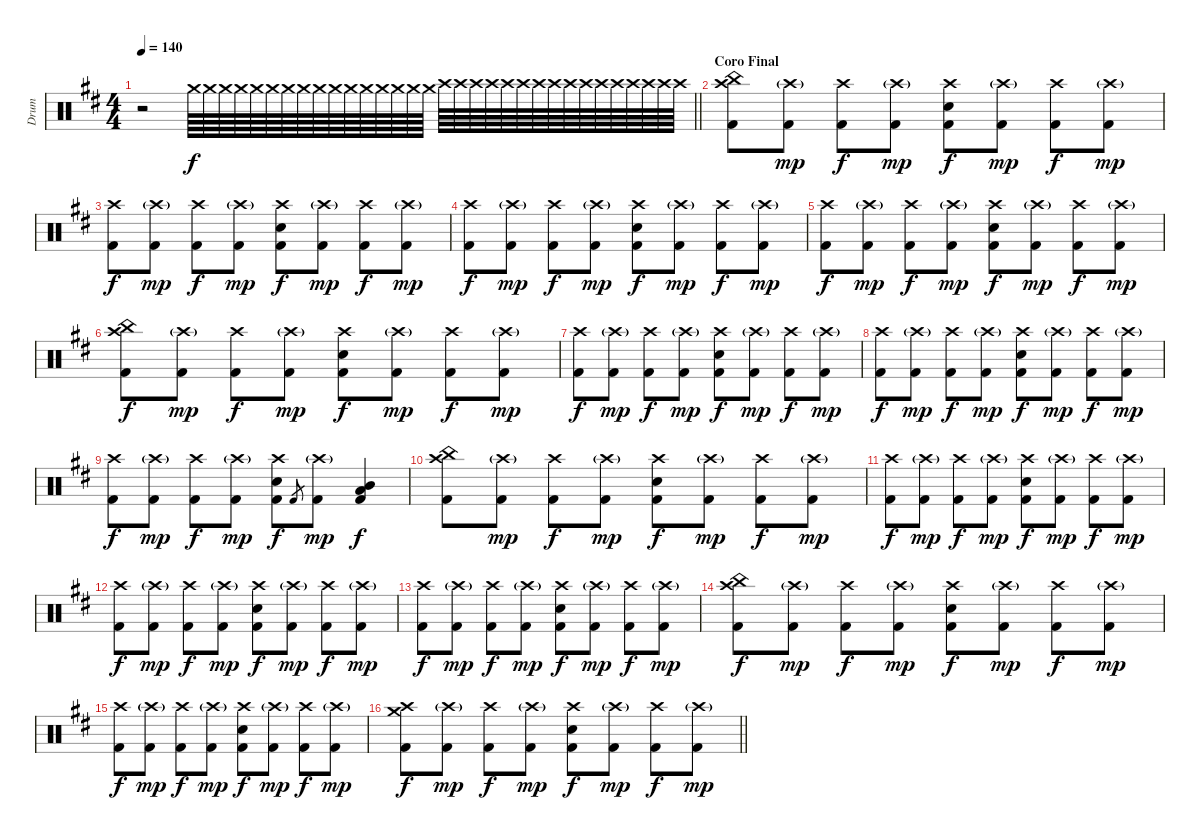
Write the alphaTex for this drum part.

\track ("Drum" "Drum") {instrument percussion}
\staff {score}
\articulation defaults
\ts (4 4)
\tempo 140
\clef neutral
\barLineRight lightlight
\ks bminor
r.2{dy f} "Crash medium (hit)".64 "Crash medium (hit)".64 "Crash medium (hit)".64 "Crash medium (hit)".64 "Crash medium (hit)".64 "Crash medium (hit)".64 "Crash medium (hit)".64 "Crash medium (hit)".64 "Crash medium (hit)".64 "Crash medium (hit)".64 "Crash medium (hit)".64 "Crash medium (hit)".64 "Crash medium (hit)".64 "Crash medium (hit)".64 "Crash medium (hit)".64 "Crash medium (hit)".64 "Crash high (hit)".64 "Crash high (hit)".64 "Crash high (hit)".64 "Crash high (hit)".64 "Crash high (hit)".64 "Crash high (hit)".64 "Crash high (hit)".64 "Crash high (hit)".64 "Crash high (hit)".64 "Crash high (hit)".64 "Crash high (hit)".64 "Crash high (hit)".64 "Crash high (hit)".64 "Crash high (hit)".64 "Crash high (hit)".64 "Crash high (hit)".64 |
\section ("" "Coro Final")
("Crash high (hit)" "China (hit)" "Kick (hit) 2").8 ("Crash high (hit)"{g} "Kick (hit) 2").8{dy mp} ("Crash high (hit)" "Kick (hit) 2").8{dy f} ("Crash high (hit)"{g} "Kick (hit) 2").8{dy mp} ("Crash high (hit)" "Snare (hit) 2" "Kick (hit) 2").8{dy f} ("Crash high (hit)"{g} "Kick (hit) 2").8{dy mp} ("Crash high (hit)" "Kick (hit) 2").8{dy f} ("Crash high (hit)"{g} "Kick (hit) 2").8{dy mp} |
("Crash high (hit)" "Kick (hit) 2").8{dy f} ("Crash high (hit)"{g} "Kick (hit) 2").8{dy mp} ("Crash high (hit)" "Kick (hit) 2").8{dy f} ("Crash high (hit)"{g} "Kick (hit) 2").8{dy mp} ("Crash high (hit)" "Snare (hit) 2" "Kick (hit) 2").8{dy f} ("Crash high (hit)"{g} "Kick (hit) 2").8{dy mp} ("Crash high (hit)" "Kick (hit) 2").8{dy f} ("Crash high (hit)"{g} "Kick (hit) 2").8{dy mp} |
("Crash high (hit)" "Kick (hit) 2").8{dy f} ("Crash high (hit)"{g} "Kick (hit) 2").8{dy mp} ("Crash high (hit)" "Kick (hit) 2").8{dy f} ("Crash high (hit)"{g} "Kick (hit) 2").8{dy mp} ("Crash high (hit)" "Snare (hit) 2" "Kick (hit) 2").8{dy f} ("Crash high (hit)"{g} "Kick (hit) 2").8{dy mp} ("Crash high (hit)" "Kick (hit) 2").8{dy f} ("Crash high (hit)"{g} "Kick (hit) 2").8{dy mp} |
("Crash high (hit)" "Kick (hit) 2").8{dy f} ("Crash high (hit)"{g} "Kick (hit) 2").8{dy mp} ("Crash high (hit)" "Kick (hit) 2").8{dy f} ("Crash high (hit)"{g} "Kick (hit) 2").8{dy mp} ("Crash high (hit)" "Snare (hit) 2" "Kick (hit) 2").8{dy f} ("Crash high (hit)"{g} "Kick (hit) 2").8{dy mp} ("Crash high (hit)" "Kick (hit) 2").8{dy f} ("Crash high (hit)"{g} "Kick (hit) 2").8{dy mp} |
("Crash high (hit)" "China (hit)" "Kick (hit) 2").8{dy f} ("Crash high (hit)"{g} "Kick (hit) 2").8{dy mp} ("Crash high (hit)" "Kick (hit) 2").8{dy f} ("Crash high (hit)"{g} "Kick (hit) 2").8{dy mp} ("Crash high (hit)" "Snare (hit) 2" "Kick (hit) 2").8{dy f} ("Crash high (hit)"{g} "Kick (hit) 2").8{dy mp} ("Crash high (hit)" "Kick (hit) 2").8{dy f} ("Crash high (hit)"{g} "Kick (hit) 2").8{dy mp} |
("Crash high (hit)" "Kick (hit) 2").8{dy f} ("Crash high (hit)"{g} "Kick (hit) 2").8{dy mp} ("Crash high (hit)" "Kick (hit) 2").8{dy f} ("Crash high (hit)"{g} "Kick (hit) 2").8{dy mp} ("Crash high (hit)" "Snare (hit) 2" "Kick (hit) 2").8{dy f} ("Crash high (hit)"{g} "Kick (hit) 2").8{dy mp} ("Crash high (hit)" "Kick (hit) 2").8{dy f} ("Crash high (hit)"{g} "Kick (hit) 2").8{dy mp} |
("Crash high (hit)" "Kick (hit) 2").8{dy f} ("Crash high (hit)"{g} "Kick (hit) 2").8{dy mp} ("Crash high (hit)" "Kick (hit) 2").8{dy f} ("Crash high (hit)"{g} "Kick (hit) 2").8{dy mp} ("Crash high (hit)" "Snare (hit) 2" "Kick (hit) 2").8{dy f} ("Crash high (hit)"{g} "Kick (hit) 2").8{dy mp} ("Crash high (hit)" "Kick (hit) 2").8{dy f} ("Crash high (hit)"{g} "Kick (hit) 2").8{dy mp} |
("Crash high (hit)" "Kick (hit) 2").8{dy f} ("Crash high (hit)"{g} "Kick (hit) 2").8{dy mp} ("Crash high (hit)" "Kick (hit) 2").8{dy f} ("Crash high (hit)"{g} "Kick (hit) 2").8{dy mp} ("Crash high (hit)" "Snare (hit) 2" "Kick (hit) 2").8{dy f} "Kick (hit) 2".8{gr} ("Crash high (hit)"{g} "Kick (hit) 2").8{dy mp} ("Mid Tom (hit)" "Low Tom (hit)" "Kick (hit) 2").4{dy f} |
("Crash high (hit)" "China (hit)" "Kick (hit) 2").8 ("Crash high (hit)"{g} "Kick (hit) 2").8{dy mp} ("Crash high (hit)" "Kick (hit) 2").8{dy f} ("Crash high (hit)"{g} "Kick (hit) 2").8{dy mp} ("Crash high (hit)" "Snare (hit) 2" "Kick (hit) 2").8{dy f} ("Crash high (hit)"{g} "Kick (hit) 2").8{dy mp} ("Crash high (hit)" "Kick (hit) 2").8{dy f} ("Crash high (hit)"{g} "Kick (hit) 2").8{dy mp} |
("Crash high (hit)" "Kick (hit) 2").8{dy f} ("Crash high (hit)"{g} "Kick (hit) 2").8{dy mp} ("Crash high (hit)" "Kick (hit) 2").8{dy f} ("Crash high (hit)"{g} "Kick (hit) 2").8{dy mp} ("Crash high (hit)" "Snare (hit) 2" "Kick (hit) 2").8{dy f} ("Crash high (hit)"{g} "Kick (hit) 2").8{dy mp} ("Crash high (hit)" "Kick (hit) 2").8{dy f} ("Crash high (hit)"{g} "Kick (hit) 2").8{dy mp} |
("Crash high (hit)" "Kick (hit) 2").8{dy f} ("Crash high (hit)"{g} "Kick (hit) 2").8{dy mp} ("Crash high (hit)" "Kick (hit) 2").8{dy f} ("Crash high (hit)"{g} "Kick (hit) 2").8{dy mp} ("Crash high (hit)" "Snare (hit) 2" "Kick (hit) 2").8{dy f} ("Crash high (hit)"{g} "Kick (hit) 2").8{dy mp} ("Crash high (hit)" "Kick (hit) 2").8{dy f} ("Crash high (hit)"{g} "Kick (hit) 2").8{dy mp} |
("Crash high (hit)" "Kick (hit) 2").8{dy f} ("Crash high (hit)"{g} "Kick (hit) 2").8{dy mp} ("Crash high (hit)" "Kick (hit) 2").8{dy f} ("Crash high (hit)"{g} "Kick (hit) 2").8{dy mp} ("Crash high (hit)" "Snare (hit) 2" "Kick (hit) 2").8{dy f} ("Crash high (hit)"{g} "Kick (hit) 2").8{dy mp} ("Crash high (hit)" "Kick (hit) 2").8{dy f} ("Crash high (hit)"{g} "Kick (hit) 2").8{dy mp} |
("Crash high (hit)" "China (hit)" "Kick (hit) 2").8{dy f} ("Crash high (hit)"{g} "Kick (hit) 2").8{dy mp} ("Crash high (hit)" "Kick (hit) 2").8{dy f} ("Crash high (hit)"{g} "Kick (hit) 2").8{dy mp} ("Crash high (hit)" "Snare (hit) 2" "Kick (hit) 2").8{dy f} ("Crash high (hit)"{g} "Kick (hit) 2").8{dy mp} ("Crash high (hit)" "Kick (hit) 2").8{dy f} ("Crash high (hit)"{g} "Kick (hit) 2").8{dy mp} |
("Crash high (hit)" "Kick (hit) 2").8{dy f} ("Crash high (hit)"{g} "Kick (hit) 2").8{dy mp} ("Crash high (hit)" "Kick (hit) 2").8{dy f} ("Crash high (hit)"{g} "Kick (hit) 2").8{dy mp} ("Crash high (hit)" "Snare (hit) 2" "Kick (hit) 2").8{dy f} ("Crash high (hit)"{g} "Kick (hit) 2").8{dy mp} ("Crash high (hit)" "Kick (hit) 2").8{dy f} ("Crash high (hit)"{g} "Kick (hit) 2").8{dy mp} |
\barLineRight lightlight
("Crash high (hit)" "Crash medium (hit)" "Kick (hit) 2").8{dy f} ("Crash high (hit)"{g} "Kick (hit) 2").8{dy mp} ("Crash high (hit)" "Kick (hit) 2").8{dy f} ("Crash high (hit)"{g} "Kick (hit) 2").8{dy mp} ("Crash high (hit)" "Snare (hit) 2" "Kick (hit) 2").8{dy f} ("Crash high (hit)"{g} "Kick (hit) 2").8{dy mp} ("Crash high (hit)" "Kick (hit) 2").8{dy f} ("Crash high (hit)"{g} "Kick (hit) 2").8{dy mp}
